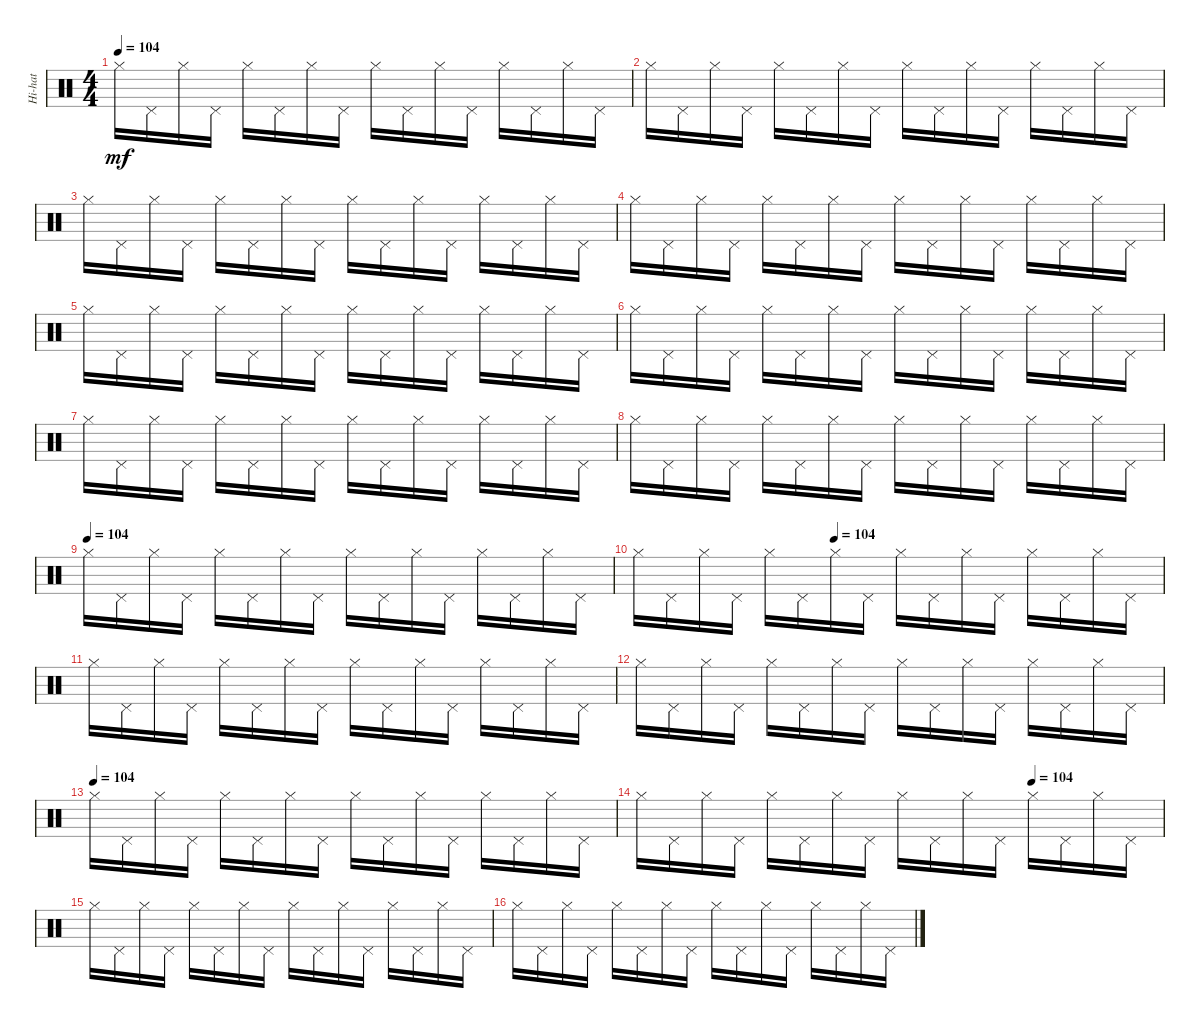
\track ("Hi-hat" "Hi-hat") {instrument percussion}
\staff {score}
\articulation defaults
\ts (4 4)
\tempo 104
\clef neutral
\ks c "Hi-Hat (closed)".16{dy mf} "Pedal Hi-Hat (hit)".16 "Hi-Hat (closed)".16 "Pedal Hi-Hat (hit)".16 "Hi-Hat (closed)".16 "Pedal Hi-Hat (hit)".16 "Hi-Hat (closed)".16 "Pedal Hi-Hat (hit)".16 "Hi-Hat (closed)".16 "Pedal Hi-Hat (hit)".16 "Hi-Hat (closed)".16 "Pedal Hi-Hat (hit)".16 "Hi-Hat (closed)".16 "Pedal Hi-Hat (hit)".16 "Hi-Hat (closed)".16 "Pedal Hi-Hat (hit)".16
|
"Hi-Hat (closed)".16 "Pedal Hi-Hat (hit)".16 "Hi-Hat (closed)".16 "Pedal Hi-Hat (hit)".16 "Hi-Hat (closed)".16 "Pedal Hi-Hat (hit)".16 "Hi-Hat (closed)".16 "Pedal Hi-Hat (hit)".16 "Hi-Hat (closed)".16 "Pedal Hi-Hat (hit)".16 "Hi-Hat (closed)".16 "Pedal Hi-Hat (hit)".16 "Hi-Hat (closed)".16 "Pedal Hi-Hat (hit)".16 "Hi-Hat (closed)".16 "Pedal Hi-Hat (hit)".16 |
"Hi-Hat (closed)".16 "Pedal Hi-Hat (hit)".16 "Hi-Hat (closed)".16 "Pedal Hi-Hat (hit)".16 "Hi-Hat (closed)".16 "Pedal Hi-Hat (hit)".16 "Hi-Hat (closed)".16 "Pedal Hi-Hat (hit)".16 "Hi-Hat (closed)".16 "Pedal Hi-Hat (hit)".16 "Hi-Hat (closed)".16 "Pedal Hi-Hat (hit)".16 "Hi-Hat (closed)".16 "Pedal Hi-Hat (hit)".16 "Hi-Hat (closed)".16 "Pedal Hi-Hat (hit)".16 |
"Hi-Hat (closed)".16 "Pedal Hi-Hat (hit)".16 "Hi-Hat (closed)".16 "Pedal Hi-Hat (hit)".16 "Hi-Hat (closed)".16 "Pedal Hi-Hat (hit)".16 "Hi-Hat (closed)".16 "Pedal Hi-Hat (hit)".16 "Hi-Hat (closed)".16 "Pedal Hi-Hat (hit)".16 "Hi-Hat (closed)".16 "Pedal Hi-Hat (hit)".16 "Hi-Hat (closed)".16 "Pedal Hi-Hat (hit)".16 "Hi-Hat (closed)".16 "Pedal Hi-Hat (hit)".16 |
"Hi-Hat (closed)".16 "Pedal Hi-Hat (hit)".16 "Hi-Hat (closed)".16 "Pedal Hi-Hat (hit)".16 "Hi-Hat (closed)".16 "Pedal Hi-Hat (hit)".16 "Hi-Hat (closed)".16 "Pedal Hi-Hat (hit)".16 "Hi-Hat (closed)".16 "Pedal Hi-Hat (hit)".16 "Hi-Hat (closed)".16 "Pedal Hi-Hat (hit)".16 "Hi-Hat (closed)".16 "Pedal Hi-Hat (hit)".16 "Hi-Hat (closed)".16 "Pedal Hi-Hat (hit)".16 |
"Hi-Hat (closed)".16 "Pedal Hi-Hat (hit)".16 "Hi-Hat (closed)".16 "Pedal Hi-Hat (hit)".16 "Hi-Hat (closed)".16 "Pedal Hi-Hat (hit)".16 "Hi-Hat (closed)".16 "Pedal Hi-Hat (hit)".16 "Hi-Hat (closed)".16 "Pedal Hi-Hat (hit)".16 "Hi-Hat (closed)".16 "Pedal Hi-Hat (hit)".16 "Hi-Hat (closed)".16 "Pedal Hi-Hat (hit)".16 "Hi-Hat (closed)".16 "Pedal Hi-Hat (hit)".16 |
"Hi-Hat (closed)".16 "Pedal Hi-Hat (hit)".16 "Hi-Hat (closed)".16 "Pedal Hi-Hat (hit)".16 "Hi-Hat (closed)".16 "Pedal Hi-Hat (hit)".16 "Hi-Hat (closed)".16 "Pedal Hi-Hat (hit)".16 "Hi-Hat (closed)".16 "Pedal Hi-Hat (hit)".16 "Hi-Hat (closed)".16 "Pedal Hi-Hat (hit)".16 "Hi-Hat (closed)".16 "Pedal Hi-Hat (hit)".16 "Hi-Hat (closed)".16 "Pedal Hi-Hat (hit)".16 |
"Hi-Hat (closed)".16 "Pedal Hi-Hat (hit)".16 "Hi-Hat (closed)".16 "Pedal Hi-Hat (hit)".16 "Hi-Hat (closed)".16 "Pedal Hi-Hat (hit)".16 "Hi-Hat (closed)".16 "Pedal Hi-Hat (hit)".16 "Hi-Hat (closed)".16 "Pedal Hi-Hat (hit)".16 "Hi-Hat (closed)".16 "Pedal Hi-Hat (hit)".16 "Hi-Hat (closed)".16 "Pedal Hi-Hat (hit)".16 "Hi-Hat (closed)".16 "Pedal Hi-Hat (hit)".16 |
\tempo (104)
"Hi-Hat (closed)".16 "Pedal Hi-Hat (hit)".16 "Hi-Hat (closed)".16 "Pedal Hi-Hat (hit)".16 "Hi-Hat (closed)".16 "Pedal Hi-Hat (hit)".16 "Hi-Hat (closed)".16 "Pedal Hi-Hat (hit)".16 "Hi-Hat (closed)".16 "Pedal Hi-Hat (hit)".16 "Hi-Hat (closed)".16 "Pedal Hi-Hat (hit)".16 "Hi-Hat (closed)".16 "Pedal Hi-Hat (hit)".16 "Hi-Hat (closed)".16 "Pedal Hi-Hat (hit)".16 |
\tempo (104 0.375)
"Hi-Hat (closed)".16 "Pedal Hi-Hat (hit)".16 "Hi-Hat (closed)".16 "Pedal Hi-Hat (hit)".16 "Hi-Hat (closed)".16 "Pedal Hi-Hat (hit)".16 "Hi-Hat (closed)".16 "Pedal Hi-Hat (hit)".16 "Hi-Hat (closed)".16 "Pedal Hi-Hat (hit)".16 "Hi-Hat (closed)".16 "Pedal Hi-Hat (hit)".16 "Hi-Hat (closed)".16 "Pedal Hi-Hat (hit)".16 "Hi-Hat (closed)".16 "Pedal Hi-Hat (hit)".16 |
"Hi-Hat (closed)".16 "Pedal Hi-Hat (hit)".16 "Hi-Hat (closed)".16 "Pedal Hi-Hat (hit)".16 "Hi-Hat (closed)".16 "Pedal Hi-Hat (hit)".16 "Hi-Hat (closed)".16 "Pedal Hi-Hat (hit)".16 "Hi-Hat (closed)".16 "Pedal Hi-Hat (hit)".16 "Hi-Hat (closed)".16 "Pedal Hi-Hat (hit)".16 "Hi-Hat (closed)".16 "Pedal Hi-Hat (hit)".16 "Hi-Hat (closed)".16 "Pedal Hi-Hat (hit)".16 |
"Hi-Hat (closed)".16 "Pedal Hi-Hat (hit)".16 "Hi-Hat (closed)".16 "Pedal Hi-Hat (hit)".16 "Hi-Hat (closed)".16 "Pedal Hi-Hat (hit)".16 "Hi-Hat (closed)".16 "Pedal Hi-Hat (hit)".16 "Hi-Hat (closed)".16 "Pedal Hi-Hat (hit)".16 "Hi-Hat (closed)".16 "Pedal Hi-Hat (hit)".16 "Hi-Hat (closed)".16 "Pedal Hi-Hat (hit)".16 "Hi-Hat (closed)".16 "Pedal Hi-Hat (hit)".16 |
\tempo (104)
"Hi-Hat (closed)".16 "Pedal Hi-Hat (hit)".16 "Hi-Hat (closed)".16 "Pedal Hi-Hat (hit)".16 "Hi-Hat (closed)".16 "Pedal Hi-Hat (hit)".16 "Hi-Hat (closed)".16 "Pedal Hi-Hat (hit)".16 "Hi-Hat (closed)".16 "Pedal Hi-Hat (hit)".16 "Hi-Hat (closed)".16 "Pedal Hi-Hat (hit)".16 "Hi-Hat (closed)".16 "Pedal Hi-Hat (hit)".16 "Hi-Hat (closed)".16 "Pedal Hi-Hat (hit)".16 |
\tempo (104 0.75)
"Hi-Hat (closed)".16 "Pedal Hi-Hat (hit)".16 "Hi-Hat (closed)".16 "Pedal Hi-Hat (hit)".16 "Hi-Hat (closed)".16 "Pedal Hi-Hat (hit)".16 "Hi-Hat (closed)".16 "Pedal Hi-Hat (hit)".16 "Hi-Hat (closed)".16 "Pedal Hi-Hat (hit)".16 "Hi-Hat (closed)".16 "Pedal Hi-Hat (hit)".16 "Hi-Hat (closed)".16 "Pedal Hi-Hat (hit)".16 "Hi-Hat (closed)".16 "Pedal Hi-Hat (hit)".16 |
"Hi-Hat (closed)".16 "Pedal Hi-Hat (hit)".16 "Hi-Hat (closed)".16 "Pedal Hi-Hat (hit)".16 "Hi-Hat (closed)".16 "Pedal Hi-Hat (hit)".16 "Hi-Hat (closed)".16 "Pedal Hi-Hat (hit)".16 "Hi-Hat (closed)".16 "Pedal Hi-Hat (hit)".16 "Hi-Hat (closed)".16 "Pedal Hi-Hat (hit)".16 "Hi-Hat (closed)".16 "Pedal Hi-Hat (hit)".16 "Hi-Hat (closed)".16 "Pedal Hi-Hat (hit)".16 |
"Hi-Hat (closed)".16 "Pedal Hi-Hat (hit)".16 "Hi-Hat (closed)".16 "Pedal Hi-Hat (hit)".16 "Hi-Hat (closed)".16 "Pedal Hi-Hat (hit)".16 "Hi-Hat (closed)".16 "Pedal Hi-Hat (hit)".16 "Hi-Hat (closed)".16 "Pedal Hi-Hat (hit)".16 "Hi-Hat (closed)".16 "Pedal Hi-Hat (hit)".16 "Hi-Hat (closed)".16 "Pedal Hi-Hat (hit)".16 "Hi-Hat (closed)".16 "Pedal Hi-Hat (hit)".16
